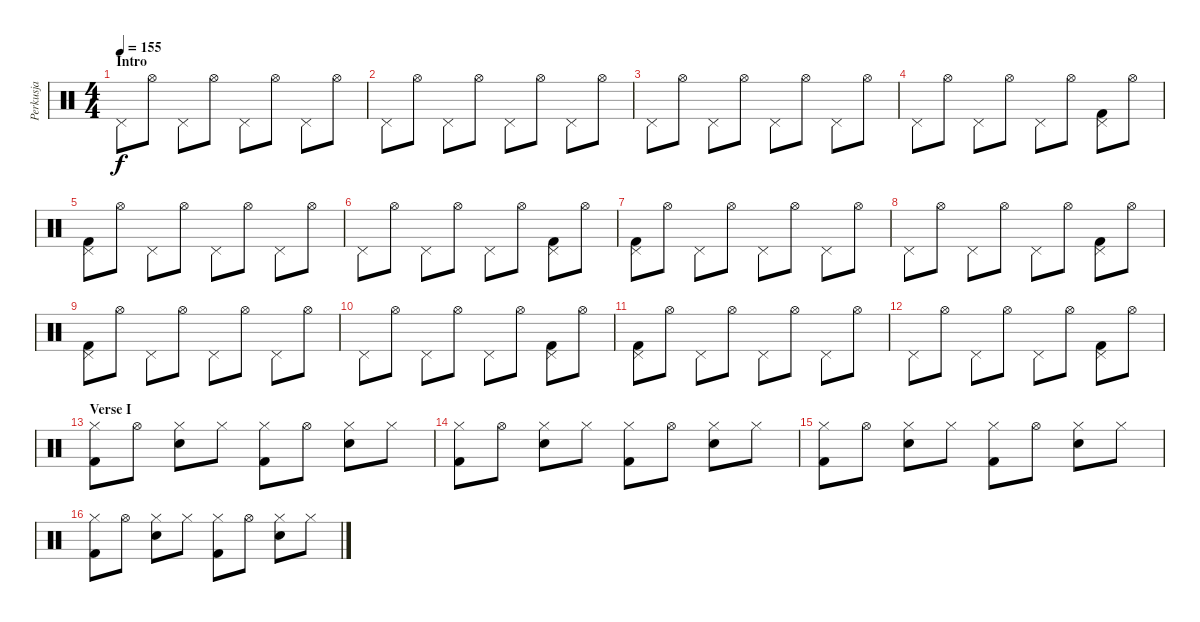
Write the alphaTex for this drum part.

\track ("Perkusja" "Perkusja") {instrument percussion}
\staff {score}
\articulation defaults
\ts (4 4)
\section ("" "Intro")
\tempo 155
\clef neutral
\ks c "Pedal Hi-Hat (hit)".8{dy f} "Hi-Hat (open)".8 "Pedal Hi-Hat (hit)".8 "Hi-Hat (open)".8 "Pedal Hi-Hat (hit)".8 "Hi-Hat (open)".8 "Pedal Hi-Hat (hit)".8 "Hi-Hat (open)".8
|
"Pedal Hi-Hat (hit)".8 "Hi-Hat (open)".8 "Pedal Hi-Hat (hit)".8 "Hi-Hat (open)".8 "Pedal Hi-Hat (hit)".8 "Hi-Hat (open)".8 "Pedal Hi-Hat (hit)".8 "Hi-Hat (open)".8 |
"Pedal Hi-Hat (hit)".8 "Hi-Hat (open)".8 "Pedal Hi-Hat (hit)".8 "Hi-Hat (open)".8 "Pedal Hi-Hat (hit)".8 "Hi-Hat (open)".8 "Pedal Hi-Hat (hit)".8 "Hi-Hat (open)".8 |
"Pedal Hi-Hat (hit)".8 "Hi-Hat (open)".8 "Pedal Hi-Hat (hit)".8 "Hi-Hat (open)".8 "Pedal Hi-Hat (hit)".8 "Hi-Hat (open)".8 ("Pedal Hi-Hat (hit)" "Kick (hit) 2").8 "Hi-Hat (open)".8 |
("Pedal Hi-Hat (hit)" "Kick (hit) 2").8 "Hi-Hat (open)".8 "Pedal Hi-Hat (hit)".8 "Hi-Hat (open)".8 "Pedal Hi-Hat (hit)".8 "Hi-Hat (open)".8 "Pedal Hi-Hat (hit)".8 "Hi-Hat (open)".8 |
"Pedal Hi-Hat (hit)".8 "Hi-Hat (open)".8 "Pedal Hi-Hat (hit)".8 "Hi-Hat (open)".8 "Pedal Hi-Hat (hit)".8 "Hi-Hat (open)".8 ("Pedal Hi-Hat (hit)" "Kick (hit) 2").8 "Hi-Hat (open)".8 |
("Pedal Hi-Hat (hit)" "Kick (hit) 2").8 "Hi-Hat (open)".8 "Pedal Hi-Hat (hit)".8 "Hi-Hat (open)".8 "Pedal Hi-Hat (hit)".8 "Hi-Hat (open)".8 "Pedal Hi-Hat (hit)".8 "Hi-Hat (open)".8 |
"Pedal Hi-Hat (hit)".8 "Hi-Hat (open)".8 "Pedal Hi-Hat (hit)".8 "Hi-Hat (open)".8 "Pedal Hi-Hat (hit)".8 "Hi-Hat (open)".8 ("Pedal Hi-Hat (hit)" "Kick (hit) 2").8 "Hi-Hat (open)".8 |
("Pedal Hi-Hat (hit)" "Kick (hit) 2").8 "Hi-Hat (open)".8 "Pedal Hi-Hat (hit)".8 "Hi-Hat (open)".8 "Pedal Hi-Hat (hit)".8 "Hi-Hat (open)".8 "Pedal Hi-Hat (hit)".8 "Hi-Hat (open)".8 |
"Pedal Hi-Hat (hit)".8 "Hi-Hat (open)".8 "Pedal Hi-Hat (hit)".8 "Hi-Hat (open)".8 "Pedal Hi-Hat (hit)".8 "Hi-Hat (open)".8 ("Pedal Hi-Hat (hit)" "Kick (hit) 2").8 "Hi-Hat (open)".8 |
("Pedal Hi-Hat (hit)" "Kick (hit) 2").8 "Hi-Hat (open)".8 "Pedal Hi-Hat (hit)".8 "Hi-Hat (open)".8 "Pedal Hi-Hat (hit)".8 "Hi-Hat (open)".8 "Pedal Hi-Hat (hit)".8 "Hi-Hat (open)".8 |
"Pedal Hi-Hat (hit)".8 "Hi-Hat (open)".8 "Pedal Hi-Hat (hit)".8 "Hi-Hat (open)".8 "Pedal Hi-Hat (hit)".8 "Hi-Hat (open)".8 ("Pedal Hi-Hat (hit)" "Kick (hit) 2").8 "Hi-Hat (open)".8 |
\section ("" "Verse I")
("Hi-Hat (closed)" "Kick (hit) 2").8 "Hi-Hat (open)".8 ("Hi-Hat (closed)" "Electric Snare (hit)").8 "Hi-Hat (closed)".8 ("Hi-Hat (closed)" "Kick (hit) 2").8 "Hi-Hat (open)".8 ("Hi-Hat (closed)" "Electric Snare (hit)").8 "Hi-Hat (closed)".8 |
("Hi-Hat (closed)" "Kick (hit) 2").8 "Hi-Hat (open)".8 ("Hi-Hat (closed)" "Electric Snare (hit)").8 "Hi-Hat (closed)".8 ("Hi-Hat (closed)" "Kick (hit) 2").8 "Hi-Hat (open)".8 ("Hi-Hat (closed)" "Electric Snare (hit)").8 "Hi-Hat (closed)".8 |
("Hi-Hat (closed)" "Kick (hit) 2").8 "Hi-Hat (open)".8 ("Hi-Hat (closed)" "Electric Snare (hit)").8 "Hi-Hat (closed)".8 ("Hi-Hat (closed)" "Kick (hit) 2").8 "Hi-Hat (open)".8 ("Hi-Hat (closed)" "Electric Snare (hit)").8 "Hi-Hat (closed)".8 |
("Hi-Hat (closed)" "Kick (hit) 2").8 "Hi-Hat (open)".8 ("Hi-Hat (closed)" "Electric Snare (hit)").8 "Hi-Hat (closed)".8 ("Hi-Hat (closed)" "Kick (hit) 2").8 "Hi-Hat (open)".8 ("Hi-Hat (closed)" "Electric Snare (hit)").8 "Hi-Hat (closed)".8
